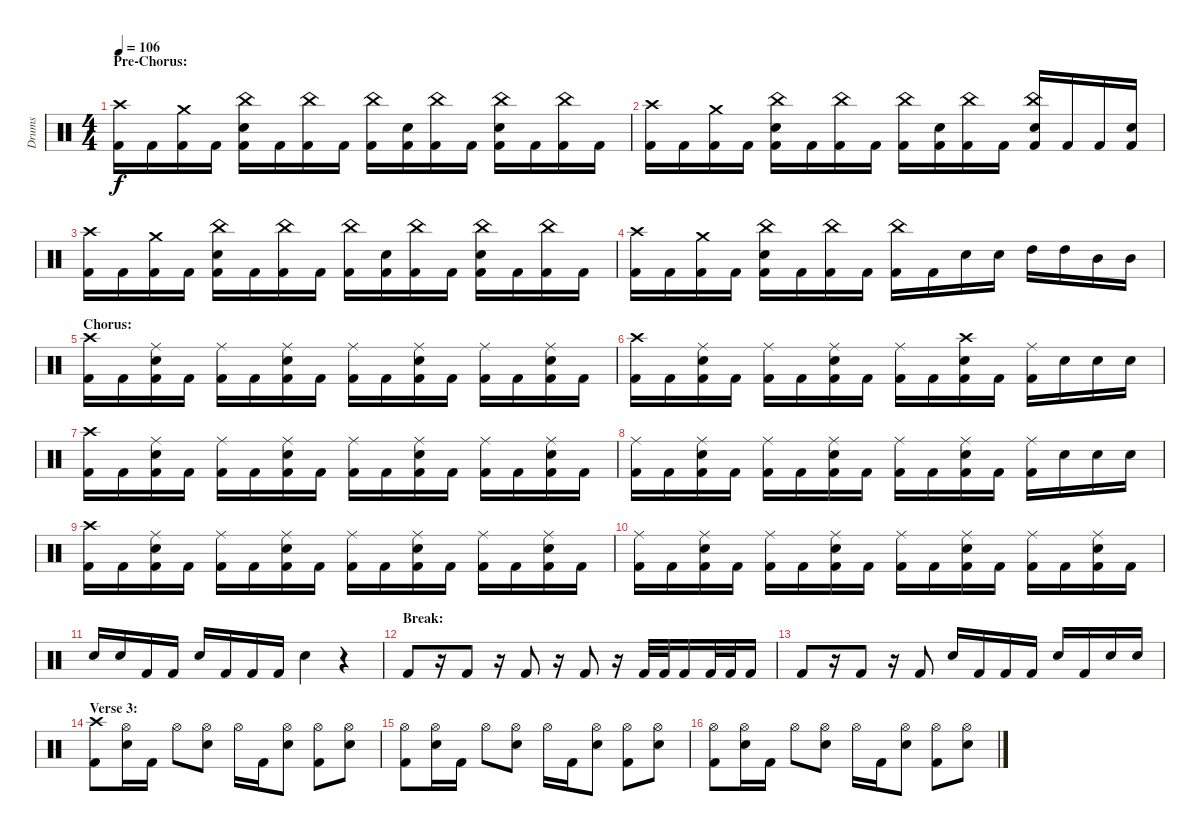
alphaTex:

\track ("Drums" "Drums") {instrument percussion}
\staff {score}
\articulation defaults
\ts (4 4)
\section ("" "Pre-Chorus:")
\tempo 106
\clef neutral
\ks c
("Crash high (hit)" "Kick (hit) 2").16{dy f} "Kick (hit) 2".16 ("Crash medium (hit)" "Kick (hit) 2").16 "Kick (hit) 2".16 ("China (hit)" "Electric Snare (hit)" "Kick (hit) 2").16 "Kick (hit) 2".16 ("China (hit)" "Kick (hit) 2").16 "Kick (hit) 2".16 ("China (hit)" "Kick (hit) 2").16 ("Electric Snare (hit)" "Kick (hit) 2").16 ("China (hit)" "Kick (hit) 2").16 "Kick (hit) 2".16 ("China (hit)" "Electric Snare (hit)" "Kick (hit) 2").16 "Kick (hit) 2".16 ("China (hit)" "Kick (hit) 2").16 "Kick (hit) 2".16 |
("Crash high (hit)" "Kick (hit) 2").16 "Kick (hit) 2".16 ("Crash medium (hit)" "Kick (hit) 2").16 "Kick (hit) 2".16 ("China (hit)" "Electric Snare (hit)" "Kick (hit) 2").16 "Kick (hit) 2".16 ("China (hit)" "Kick (hit) 2").16 "Kick (hit) 2".16 ("China (hit)" "Kick (hit) 2").16 ("Electric Snare (hit)" "Kick (hit) 2").16 ("China (hit)" "Kick (hit) 2").16 "Kick (hit) 2".16 ("China (hit)" "Electric Snare (hit)" "Kick (hit) 2").16 "Kick (hit) 2".16 "Kick (hit) 2".16 ("Electric Snare (hit)" "Kick (hit) 2").16 |
("Crash high (hit)" "Kick (hit) 2").16 "Kick (hit) 2".16 ("Crash medium (hit)" "Kick (hit) 2").16 "Kick (hit) 2".16 ("China (hit)" "Electric Snare (hit)" "Kick (hit) 2").16 "Kick (hit) 2".16 ("China (hit)" "Kick (hit) 2").16 "Kick (hit) 2".16 ("China (hit)" "Kick (hit) 2").16 ("Electric Snare (hit)" "Kick (hit) 2").16 ("China (hit)" "Kick (hit) 2").16 "Kick (hit) 2".16 ("China (hit)" "Electric Snare (hit)" "Kick (hit) 2").16 "Kick (hit) 2".16 ("China (hit)" "Kick (hit) 2").16 "Kick (hit) 2".16 |
("Crash high (hit)" "Kick (hit) 2").16 "Kick (hit) 2".16 ("Crash medium (hit)" "Kick (hit) 2").16 "Kick (hit) 2".16 ("China (hit)" "Electric Snare (hit)" "Kick (hit) 2").16 "Kick (hit) 2".16 ("China (hit)" "Kick (hit) 2").16 "Kick (hit) 2".16 ("China (hit)" "Kick (hit) 2").16 "Kick (hit) 2".16 "Electric Snare (hit)".16 "Electric Snare (hit)".16 "High Tom (hit)".16 "High Tom (hit)".16 "Mid Tom (hit)".16 "Mid Tom (hit)".16 |
\section ("" "Chorus:")
("Crash high (hit)" "Kick (hit) 2").16 "Kick (hit) 2".16 ("Ride (middle)" "Electric Snare (hit)" "Kick (hit) 2").16 "Kick (hit) 2".16 ("Ride (middle)" "Kick (hit) 2").16 "Kick (hit) 2".16 ("Ride (middle)" "Electric Snare (hit)" "Kick (hit) 2").16 "Kick (hit) 2".16 ("Ride (middle)" "Kick (hit) 2").16 "Kick (hit) 2".16 ("Ride (middle)" "Electric Snare (hit)" "Kick (hit) 2").16 "Kick (hit) 2".16 ("Ride (middle)" "Kick (hit) 2").16 "Kick (hit) 2".16 ("Ride (middle)" "Electric Snare (hit)" "Kick (hit) 2").16 "Kick (hit) 2".16 |
("Crash high (hit)" "Kick (hit) 2").16 "Kick (hit) 2".16 ("Ride (middle)" "Electric Snare (hit)" "Kick (hit) 2").16 "Kick (hit) 2".16 ("Ride (middle)" "Kick (hit) 2").16 "Kick (hit) 2".16 ("Ride (middle)" "Electric Snare (hit)" "Kick (hit) 2").16 "Kick (hit) 2".16 ("Ride (middle)" "Kick (hit) 2").16 "Kick (hit) 2".16 ("Crash high (hit)" "Electric Snare (hit)" "Kick (hit) 2").16 "Kick (hit) 2".16 ("Ride (middle)" "Kick (hit) 2").16 "Electric Snare (hit)".16 "Electric Snare (hit)".16 "Electric Snare (hit)".16 |
("Crash high (hit)" "Kick (hit) 2").16 "Kick (hit) 2".16 ("Ride (middle)" "Electric Snare (hit)" "Kick (hit) 2").16 "Kick (hit) 2".16 ("Ride (middle)" "Kick (hit) 2").16 "Kick (hit) 2".16 ("Ride (middle)" "Electric Snare (hit)" "Kick (hit) 2").16 "Kick (hit) 2".16 ("Ride (middle)" "Kick (hit) 2").16 "Kick (hit) 2".16 ("Ride (middle)" "Electric Snare (hit)" "Kick (hit) 2").16 "Kick (hit) 2".16 ("Ride (middle)" "Kick (hit) 2").16 "Kick (hit) 2".16 ("Ride (middle)" "Electric Snare (hit)" "Kick (hit) 2").16 "Kick (hit) 2".16 |
("Ride (middle)" "Kick (hit) 2").16 "Kick (hit) 2".16 ("Ride (middle)" "Electric Snare (hit)" "Kick (hit) 2").16 "Kick (hit) 2".16 ("Ride (middle)" "Kick (hit) 2").16 "Kick (hit) 2".16 ("Ride (middle)" "Electric Snare (hit)" "Kick (hit) 2").16 "Kick (hit) 2".16 ("Ride (middle)" "Kick (hit) 2").16 "Kick (hit) 2".16 ("Ride (middle)" "Electric Snare (hit)" "Kick (hit) 2").16 "Kick (hit) 2".16 ("Ride (middle)" "Kick (hit) 2").16 "Electric Snare (hit)".16 "Electric Snare (hit)".16 "Electric Snare (hit)".16 |
("Crash high (hit)" "Kick (hit) 2").16 "Kick (hit) 2".16 ("Ride (middle)" "Electric Snare (hit)" "Kick (hit) 2").16 "Kick (hit) 2".16 ("Ride (middle)" "Kick (hit) 2").16 "Kick (hit) 2".16 ("Ride (middle)" "Electric Snare (hit)" "Kick (hit) 2").16 "Kick (hit) 2".16 ("Ride (middle)" "Kick (hit) 2").16 "Kick (hit) 2".16 ("Ride (middle)" "Electric Snare (hit)" "Kick (hit) 2").16 "Kick (hit) 2".16 ("Ride (middle)" "Kick (hit) 2").16 "Kick (hit) 2".16 ("Ride (middle)" "Electric Snare (hit)" "Kick (hit) 2").16 "Kick (hit) 2".16 |
("Ride (middle)" "Kick (hit) 2").16 "Kick (hit) 2".16 ("Ride (middle)" "Electric Snare (hit)" "Kick (hit) 2").16 "Kick (hit) 2".16 ("Ride (middle)" "Kick (hit) 2").16 "Kick (hit) 2".16 ("Ride (middle)" "Electric Snare (hit)" "Kick (hit) 2").16 "Kick (hit) 2".16 ("Ride (middle)" "Kick (hit) 2").16 "Kick (hit) 2".16 ("Ride (middle)" "Electric Snare (hit)" "Kick (hit) 2").16 "Kick (hit) 2".16 ("Ride (middle)" "Kick (hit) 2").16 "Kick (hit) 2".16 ("Ride (middle)" "Electric Snare (hit)" "Kick (hit) 2").16 "Kick (hit) 2".16 |
"Electric Snare (hit)".16 "Electric Snare (hit)".16 "Kick (hit) 2".16 "Kick (hit) 2".16 "Electric Snare (hit)".16 "Kick (hit) 2".16 "Kick (hit) 2".16 "Kick (hit) 2".16 "Electric Snare (hit)".4 r.4 |
\section ("" "Break:")
"Kick (hit) 2".8 r.16 "Kick (hit) 2".8 r.16 "Kick (hit) 2".8 r.16 "Kick (hit) 2".8 r.16 "Kick (hit) 2".32 "Kick (hit) 2".32 "Kick (hit) 2".16 "Kick (hit) 2".32 "Kick (hit) 2".32 "Kick (hit) 2".16 |
"Kick (hit) 2".8 r.16 "Kick (hit) 2".8 r.16 "Kick (hit) 2".8 "Electric Snare (hit)".16 "Kick (hit) 2".16 "Kick (hit) 2".16 "Kick (hit) 2".16 "Electric Snare (hit)".16 "Kick (hit) 2".16 "Electric Snare (hit)".16 "Electric Snare (hit)".16 |
\section ("" "Verse 3:")
("Crash high (hit)" "Kick (hit) 2").8 ("Hi-Hat (open)" "Electric Snare (hit)").16 "Kick (hit) 2".16 "Hi-Hat (open)".8 ("Hi-Hat (open)" "Electric Snare (hit)").8 "Hi-Hat (open)".16 "Kick (hit) 2".16 ("Hi-Hat (open)" "Electric Snare (hit)").8 ("Hi-Hat (open)" "Kick (hit) 2").8 ("Hi-Hat (open)" "Electric Snare (hit)").8 |
("Hi-Hat (open)" "Kick (hit) 2").8 ("Hi-Hat (open)" "Electric Snare (hit)").16 "Kick (hit) 2".16 "Hi-Hat (open)".8 ("Hi-Hat (open)" "Electric Snare (hit)").8 "Hi-Hat (open)".16 "Kick (hit) 2".16 ("Hi-Hat (open)" "Electric Snare (hit)").8 ("Hi-Hat (open)" "Kick (hit) 2").8 ("Hi-Hat (open)" "Electric Snare (hit)").8 |
("Hi-Hat (open)" "Kick (hit) 2").8 ("Hi-Hat (open)" "Electric Snare (hit)").16 "Kick (hit) 2".16 "Hi-Hat (open)".8 ("Hi-Hat (open)" "Electric Snare (hit)").8 "Hi-Hat (open)".16 "Kick (hit) 2".16 ("Hi-Hat (open)" "Electric Snare (hit)").8 ("Hi-Hat (open)" "Kick (hit) 2").8 ("Hi-Hat (open)" "Electric Snare (hit)").8
